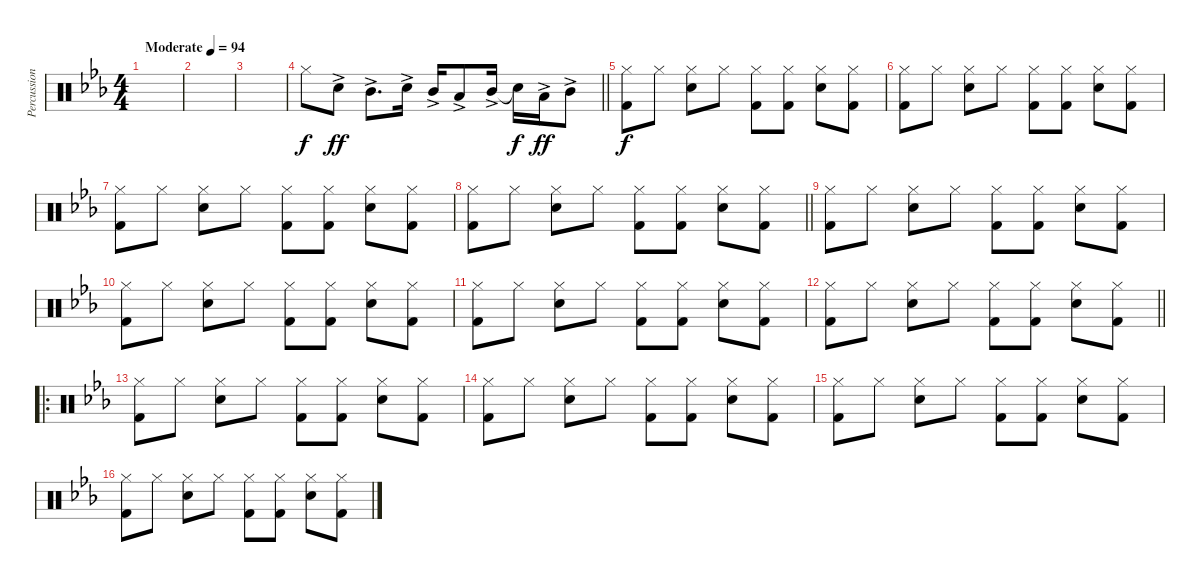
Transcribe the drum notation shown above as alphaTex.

\track ("Percussion" "Percussion") {instrument percussion}
\staff {score}
\articulation defaults
\ts (4 4)
\tempo (94 "Moderate")
\clef neutral
\ks eb
|
|
|
\barLineRight lightlight "Hi-Hat (closed)".8 "Snare (hit) 2"{ac}.8{dy ff} "Mid Tom (hit)"{ac}.8{d} "Snare (hit) 2"{ac}.16 "Mid Tom (hit)"{ac}.16 "Low Tom (hit)"{ac}.8 "Mid Tom (hit)"{ac}.16 "Snare (hit)"{t}.16{dy f} "Low Tom (hit)"{ac}.16{dy ff} "Mid Tom (hit)"{ac}.8
|
("Hi-Hat (closed)" "Kick (hit) 2").8{dy f} "Hi-Hat (closed)".8 ("Hi-Hat (closed)" "Snare (hit) 2").8 "Hi-Hat (closed)".8 ("Hi-Hat (closed)" "Kick (hit) 2").8 ("Hi-Hat (closed)" "Kick (hit) 2").8 ("Hi-Hat (closed)" "Snare (hit) 2").8 ("Hi-Hat (closed)" "Kick (hit) 2").8 |
("Hi-Hat (closed)" "Kick (hit) 2").8 "Hi-Hat (closed)".8 ("Hi-Hat (closed)" "Snare (hit) 2").8 "Hi-Hat (closed)".8 ("Hi-Hat (closed)" "Kick (hit) 2").8 ("Hi-Hat (closed)" "Kick (hit) 2").8 ("Hi-Hat (closed)" "Snare (hit) 2").8 ("Hi-Hat (closed)" "Kick (hit) 2").8 |
("Hi-Hat (closed)" "Kick (hit) 2").8 "Hi-Hat (closed)".8 ("Hi-Hat (closed)" "Snare (hit) 2").8 "Hi-Hat (closed)".8 ("Hi-Hat (closed)" "Kick (hit) 2").8 ("Hi-Hat (closed)" "Kick (hit) 2").8 ("Hi-Hat (closed)" "Snare (hit) 2").8 ("Hi-Hat (closed)" "Kick (hit) 2").8 |
\barLineRight lightlight
("Hi-Hat (closed)" "Kick (hit) 2").8 "Hi-Hat (closed)".8 ("Hi-Hat (closed)" "Snare (hit) 2").8 "Hi-Hat (closed)".8 ("Hi-Hat (closed)" "Kick (hit) 2").8 ("Hi-Hat (closed)" "Kick (hit) 2").8 ("Hi-Hat (closed)" "Snare (hit) 2").8 ("Hi-Hat (closed)" "Kick (hit) 2").8 |
("Hi-Hat (closed)" "Kick (hit) 2").8 "Hi-Hat (closed)".8 ("Hi-Hat (closed)" "Snare (hit) 2").8 "Hi-Hat (closed)".8 ("Hi-Hat (closed)" "Kick (hit) 2").8 ("Hi-Hat (closed)" "Kick (hit) 2").8 ("Hi-Hat (closed)" "Snare (hit) 2").8 ("Hi-Hat (closed)" "Kick (hit) 2").8 |
("Hi-Hat (closed)" "Kick (hit) 2").8 "Hi-Hat (closed)".8 ("Hi-Hat (closed)" "Snare (hit) 2").8 "Hi-Hat (closed)".8 ("Hi-Hat (closed)" "Kick (hit) 2").8 ("Hi-Hat (closed)" "Kick (hit) 2").8 ("Hi-Hat (closed)" "Snare (hit) 2").8 ("Hi-Hat (closed)" "Kick (hit) 2").8 |
("Hi-Hat (closed)" "Kick (hit) 2").8 "Hi-Hat (closed)".8 ("Hi-Hat (closed)" "Snare (hit) 2").8 "Hi-Hat (closed)".8 ("Hi-Hat (closed)" "Kick (hit) 2").8 ("Hi-Hat (closed)" "Kick (hit) 2").8 ("Hi-Hat (closed)" "Snare (hit) 2").8 ("Hi-Hat (closed)" "Kick (hit) 2").8 |
\barLineRight lightlight
("Hi-Hat (closed)" "Kick (hit) 2").8 "Hi-Hat (closed)".8 ("Hi-Hat (closed)" "Snare (hit) 2").8 "Hi-Hat (closed)".8 ("Hi-Hat (closed)" "Kick (hit) 2").8 ("Hi-Hat (closed)" "Kick (hit) 2").8 ("Hi-Hat (closed)" "Snare (hit) 2").8 ("Hi-Hat (closed)" "Kick (hit) 2").8 |
\ro
("Hi-Hat (closed)" "Kick (hit) 2").8 "Hi-Hat (closed)".8 ("Hi-Hat (closed)" "Snare (hit) 2").8 "Hi-Hat (closed)".8 ("Hi-Hat (closed)" "Kick (hit) 2").8 ("Hi-Hat (closed)" "Kick (hit) 2").8 ("Hi-Hat (closed)" "Snare (hit) 2").8 ("Hi-Hat (closed)" "Kick (hit) 2").8 |
("Hi-Hat (closed)" "Kick (hit) 2").8 "Hi-Hat (closed)".8 ("Hi-Hat (closed)" "Snare (hit) 2").8 "Hi-Hat (closed)".8 ("Hi-Hat (closed)" "Kick (hit) 2").8 ("Hi-Hat (closed)" "Kick (hit) 2").8 ("Hi-Hat (closed)" "Snare (hit) 2").8 ("Hi-Hat (closed)" "Kick (hit) 2").8 |
("Hi-Hat (closed)" "Kick (hit) 2").8 "Hi-Hat (closed)".8 ("Hi-Hat (closed)" "Snare (hit) 2").8 "Hi-Hat (closed)".8 ("Hi-Hat (closed)" "Kick (hit) 2").8 ("Hi-Hat (closed)" "Kick (hit) 2").8 ("Hi-Hat (closed)" "Snare (hit) 2").8 ("Hi-Hat (closed)" "Kick (hit) 2").8 |
("Hi-Hat (closed)" "Kick (hit) 2").8 "Hi-Hat (closed)".8 ("Hi-Hat (closed)" "Snare (hit) 2").8 "Hi-Hat (closed)".8 ("Hi-Hat (closed)" "Kick (hit) 2").8 ("Hi-Hat (closed)" "Kick (hit) 2").8 ("Hi-Hat (closed)" "Snare (hit) 2").8 ("Hi-Hat (closed)" "Kick (hit) 2").8
